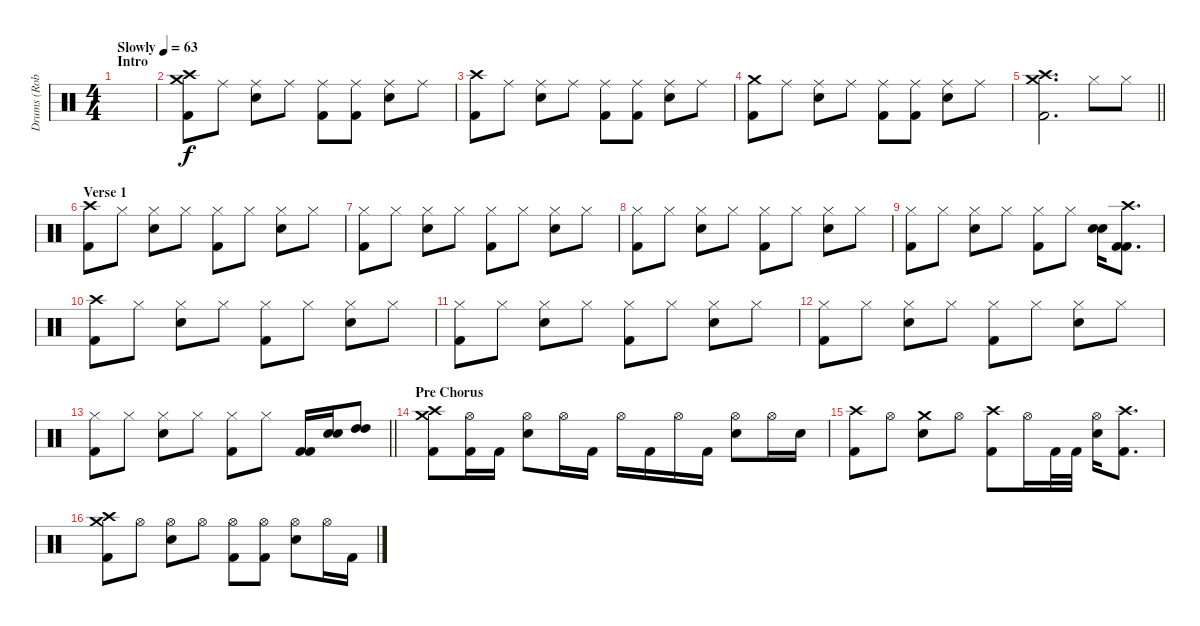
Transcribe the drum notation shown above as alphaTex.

\track ("Drums (Rob Affuso)" "Drums (Rob") {instrument percussion}
\staff {score}
\articulation defaults
\ts (4 4)
\section ("" "Intro")
\tempo (63 "Slowly")
\clef neutral
\ks c
|
("Crash medium (hit)" "Crash high (hit)" "Kick (hit) 2").8 "Ride (middle)".8 ("Ride (middle)" "Electric Snare (hit)").8 "Ride (middle)".8 ("Ride (middle)" "Kick (hit) 2").8 ("Ride (middle)" "Kick (hit) 2").8 ("Ride (middle)" "Electric Snare (hit)").8 "Ride (middle)".8 |
("Crash high (hit)" "Kick (hit) 2").8 "Ride (middle)".8 ("Ride (middle)" "Electric Snare (hit)").8 "Ride (middle)".8 ("Ride (middle)" "Kick (hit) 2").8 ("Ride (middle)" "Kick (hit) 2").8 ("Ride (middle)" "Electric Snare (hit)").8 "Ride (middle)".8 |
("Crash medium (hit)" "Kick (hit) 2").8 "Ride (middle)".8 ("Ride (middle)" "Electric Snare (hit)").8 "Ride (middle)".8 ("Ride (middle)" "Kick (hit) 2").8 ("Ride (middle)" "Kick (hit) 2").8 ("Ride (middle)" "Electric Snare (hit)").8 "Ride (middle)".8 |
\barLineRight lightlight
("Crash medium (hit)" "Crash high (hit)" "Kick (hit) 2").2{d} "Hi-Hat (closed)".8 "Hi-Hat (closed)".8 |
\section ("" "Verse 1")
("Crash high (hit)" "Kick (hit) 2").8 "Hi-Hat (closed)".8 ("Hi-Hat (closed)" "Electric Snare (hit)").8 "Hi-Hat (closed)".8 ("Hi-Hat (closed)" "Kick (hit) 2").8 "Hi-Hat (closed)".8 ("Hi-Hat (closed)" "Electric Snare (hit)").8 "Hi-Hat (closed)".8 |
("Hi-Hat (closed)" "Kick (hit) 2").8 "Hi-Hat (closed)".8 ("Hi-Hat (closed)" "Electric Snare (hit)").8 "Hi-Hat (closed)".8 ("Hi-Hat (closed)" "Kick (hit) 2").8 "Hi-Hat (closed)".8 ("Hi-Hat (closed)" "Electric Snare (hit)").8 "Hi-Hat (closed)".8 |
("Hi-Hat (closed)" "Kick (hit) 2").8 "Hi-Hat (closed)".8 ("Hi-Hat (closed)" "Electric Snare (hit)").8 "Hi-Hat (closed)".8 ("Hi-Hat (closed)" "Kick (hit) 2").8 "Hi-Hat (closed)".8 ("Hi-Hat (closed)" "Electric Snare (hit)").8 "Hi-Hat (closed)".8 |
("Hi-Hat (closed)" "Kick (hit) 2").8 "Hi-Hat (closed)".8 ("Hi-Hat (closed)" "Electric Snare (hit)").8 "Hi-Hat (closed)".8 ("Hi-Hat (closed)" "Kick (hit) 2").8 "Hi-Hat (closed)".8 ("Electric Snare (hit)" "Electric Snare (hit)").16 ("Crash high (hit)" "Kick (hit) 2" "Kick (hit) 2").8{d} |
("Crash high (hit)" "Kick (hit) 2").8 "Hi-Hat (closed)".8 ("Hi-Hat (closed)" "Electric Snare (hit)").8 "Hi-Hat (closed)".8 ("Hi-Hat (closed)" "Kick (hit) 2").8 "Hi-Hat (closed)".8 ("Hi-Hat (closed)" "Electric Snare (hit)").8 "Hi-Hat (closed)".8 |
("Hi-Hat (closed)" "Kick (hit) 2").8 "Hi-Hat (closed)".8 ("Hi-Hat (closed)" "Electric Snare (hit)").8 "Hi-Hat (closed)".8 ("Hi-Hat (closed)" "Kick (hit) 2").8 "Hi-Hat (closed)".8 ("Hi-Hat (closed)" "Electric Snare (hit)").8 "Hi-Hat (closed)".8 |
("Hi-Hat (closed)" "Kick (hit) 2").8 "Hi-Hat (closed)".8 ("Hi-Hat (closed)" "Electric Snare (hit)").8 "Hi-Hat (closed)".8 ("Hi-Hat (closed)" "Kick (hit) 2").8 "Hi-Hat (closed)".8 ("Hi-Hat (closed)" "Electric Snare (hit)").8 "Hi-Hat (closed)".8 |
\barLineRight lightlight
("Hi-Hat (closed)" "Kick (hit) 2").8 "Hi-Hat (closed)".8 ("Hi-Hat (closed)" "Electric Snare (hit)").8 "Hi-Hat (closed)".8 ("Hi-Hat (closed)" "Kick (hit) 2").8 "Hi-Hat (closed)".8 ("Kick (hit) 2" "Kick (hit) 2").16 ("Electric Snare (hit)" "Electric Snare (hit)").16 ("High Tom (hit)" "High Tom (hit)").8 |
\section ("" "Pre Chorus")
("Crash medium (hit)" "Crash high (hit)" "Kick (hit) 2").8 ("Hi-Hat (open)" "Kick (hit) 2").16 "Kick (hit) 2".16 ("Hi-Hat (open)" "Electric Snare (hit)").8 "Hi-Hat (open)".16 "Kick (hit) 2".16 "Hi-Hat (open)".16 "Kick (hit) 2".16 "Hi-Hat (open)".16 "Kick (hit) 2".16 ("Hi-Hat (open)" "Electric Snare (hit)").8 "Hi-Hat (open)".16 "Electric Snare (hit)".16 |
("Crash high (hit)" "Kick (hit) 2").8 "Hi-Hat (open)".8 ("Crash medium (hit)" "Electric Snare (hit)").8 "Hi-Hat (open)".8 ("Crash high (hit)" "Kick (hit) 2").8 "Hi-Hat (open)".16 "Kick (hit) 2".32 "Kick (hit) 2".32 ("Hi-Hat (open)" "Electric Snare (hit)").16 ("Crash high (hit)" "Kick (hit) 2").8{d} |
("Crash medium (hit)" "Crash high (hit)" "Kick (hit) 2").8 "Hi-Hat (open)".8 ("Hi-Hat (open)" "Electric Snare (hit)").8 "Hi-Hat (open)".8 ("Hi-Hat (open)" "Kick (hit) 2").8 ("Hi-Hat (open)" "Kick (hit) 2").8 ("Hi-Hat (open)" "Electric Snare (hit)").8 "Hi-Hat (open)".16 "Kick (hit) 2".16
